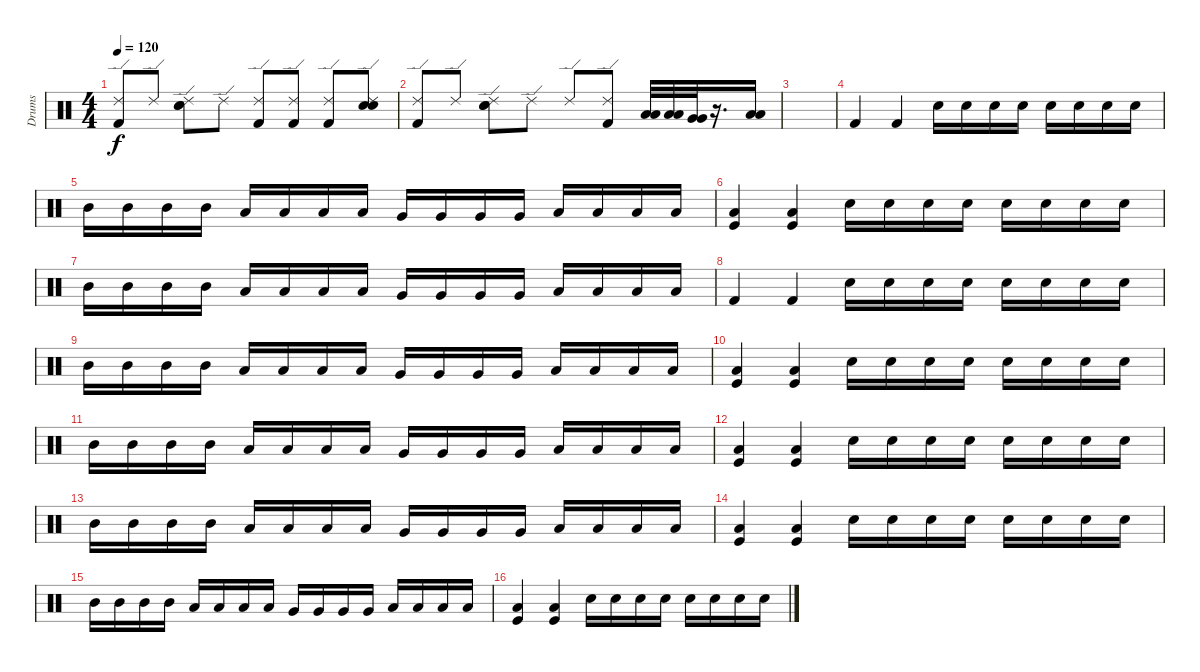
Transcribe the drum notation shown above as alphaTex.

\track ("Drums" "Drums") {instrument percussion}
\staff {score}
\articulation defaults
\ts (4 4)
\tempo 120
\clef neutral
\ks c
("Ride (edge) 2" "Kick (hit) 2").8{dy f} "Ride (edge) 2".8 ("Ride (edge) 2" "Snare (hit) 2" "Snare (hit) 2").8 "Ride (edge) 2".8 ("Ride (edge) 2" "Kick (hit) 2").8 ("Ride (edge) 2" "Kick (hit) 2").8 ("Ride (edge) 2" "Kick (hit) 2").8 ("Ride (edge) 2" "Snare (hit) 2" "Snare (hit) 2").8 |
("Ride (edge) 2" "Kick (hit) 2").8 "Ride (edge) 2".8 ("Ride (edge) 2" "Snare (hit) 2" "Snare (hit) 2").8 "Ride (edge) 2".8 "Ride (edge) 2".8 ("Ride (edge) 2" "Kick (hit) 2").8 ("Low Tom (hit)" "Low Tom (hit)").32 ("Low Tom (hit)" "Low Tom (hit)").32 ("Very Low Tom (hit)" "Very Low Tom (hit)").32 r.16{d} ("Low Floor Tom (hit)" "Low Floor Tom (hit)").16 |
|
"Kick (hit) 2".4 "Kick (hit) 2".4 "Electric Snare (hit)".16 "Electric Snare (hit)".16 "Electric Snare (hit)".16 "Electric Snare (hit)".16 "Electric Snare (hit)".16 "Electric Snare (hit)".16 "Electric Snare (hit)".16 "Electric Snare (hit)".16 |
"Mid Tom (hit)".16 "Mid Tom (hit)".16 "Mid Tom (hit)".16 "Mid Tom (hit)".16 "Low Tom (hit)".16 "Low Tom (hit)".16 "Low Tom (hit)".16 "Low Tom (hit)".16 "Very Low Tom (hit)".16 "Very Low Tom (hit)".16 "Very Low Tom (hit)".16 "Very Low Tom (hit)".16 "Low Floor Tom (hit)".16 "Low Floor Tom (hit)".16 "Low Floor Tom (hit)".16 "Low Floor Tom (hit)".16 |
("Kick (hit)" "Low Floor Tom (hit)").4 ("Kick (hit)" "Low Floor Tom (hit)").4 "Electric Snare (hit)".16 "Electric Snare (hit)".16 "Electric Snare (hit)".16 "Electric Snare (hit)".16 "Electric Snare (hit)".16 "Electric Snare (hit)".16 "Electric Snare (hit)".16 "Electric Snare (hit)".16 |
"Mid Tom (hit)".16 "Mid Tom (hit)".16 "Mid Tom (hit)".16 "Mid Tom (hit)".16 "Low Tom (hit)".16 "Low Tom (hit)".16 "Low Tom (hit)".16 "Low Tom (hit)".16 "Very Low Tom (hit)".16 "Very Low Tom (hit)".16 "Very Low Tom (hit)".16 "Very Low Tom (hit)".16 "Low Floor Tom (hit)".16 "Low Floor Tom (hit)".16 "Low Floor Tom (hit)".16 "Low Floor Tom (hit)".16 |
"Kick (hit) 2".4 "Kick (hit) 2".4 "Electric Snare (hit)".16 "Electric Snare (hit)".16 "Electric Snare (hit)".16 "Electric Snare (hit)".16 "Electric Snare (hit)".16 "Electric Snare (hit)".16 "Electric Snare (hit)".16 "Electric Snare (hit)".16 |
"Mid Tom (hit)".16 "Mid Tom (hit)".16 "Mid Tom (hit)".16 "Mid Tom (hit)".16 "Low Tom (hit)".16 "Low Tom (hit)".16 "Low Tom (hit)".16 "Low Tom (hit)".16 "Very Low Tom (hit)".16 "Very Low Tom (hit)".16 "Very Low Tom (hit)".16 "Very Low Tom (hit)".16 "Low Floor Tom (hit)".16 "Low Floor Tom (hit)".16 "Low Floor Tom (hit)".16 "Low Floor Tom (hit)".16 |
("Kick (hit)" "Low Floor Tom (hit)").4 ("Kick (hit)" "Low Floor Tom (hit)").4 "Electric Snare (hit)".16 "Electric Snare (hit)".16 "Electric Snare (hit)".16 "Electric Snare (hit)".16 "Electric Snare (hit)".16 "Electric Snare (hit)".16 "Electric Snare (hit)".16 "Electric Snare (hit)".16 |
"Mid Tom (hit)".16 "Mid Tom (hit)".16 "Mid Tom (hit)".16 "Mid Tom (hit)".16 "Low Tom (hit)".16 "Low Tom (hit)".16 "Low Tom (hit)".16 "Low Tom (hit)".16 "Very Low Tom (hit)".16 "Very Low Tom (hit)".16 "Very Low Tom (hit)".16 "Very Low Tom (hit)".16 "Low Floor Tom (hit)".16 "Low Floor Tom (hit)".16 "Low Floor Tom (hit)".16 "Low Floor Tom (hit)".16 |
("Kick (hit)" "Low Floor Tom (hit)").4 ("Kick (hit)" "Low Floor Tom (hit)").4 "Electric Snare (hit)".16 "Electric Snare (hit)".16 "Electric Snare (hit)".16 "Electric Snare (hit)".16 "Electric Snare (hit)".16 "Electric Snare (hit)".16 "Electric Snare (hit)".16 "Electric Snare (hit)".16 |
"Mid Tom (hit)".16 "Mid Tom (hit)".16 "Mid Tom (hit)".16 "Mid Tom (hit)".16 "Low Tom (hit)".16 "Low Tom (hit)".16 "Low Tom (hit)".16 "Low Tom (hit)".16 "Very Low Tom (hit)".16 "Very Low Tom (hit)".16 "Very Low Tom (hit)".16 "Very Low Tom (hit)".16 "Low Floor Tom (hit)".16 "Low Floor Tom (hit)".16 "Low Floor Tom (hit)".16 "Low Floor Tom (hit)".16 |
("Kick (hit)" "Low Floor Tom (hit)").4 ("Kick (hit)" "Low Floor Tom (hit)").4 "Electric Snare (hit)".16 "Electric Snare (hit)".16 "Electric Snare (hit)".16 "Electric Snare (hit)".16 "Electric Snare (hit)".16 "Electric Snare (hit)".16 "Electric Snare (hit)".16 "Electric Snare (hit)".16 |
"Mid Tom (hit)".16 "Mid Tom (hit)".16 "Mid Tom (hit)".16 "Mid Tom (hit)".16 "Low Tom (hit)".16 "Low Tom (hit)".16 "Low Tom (hit)".16 "Low Tom (hit)".16 "Very Low Tom (hit)".16 "Very Low Tom (hit)".16 "Very Low Tom (hit)".16 "Very Low Tom (hit)".16 "Low Floor Tom (hit)".16 "Low Floor Tom (hit)".16 "Low Floor Tom (hit)".16 "Low Floor Tom (hit)".16 |
("Kick (hit)" "Low Floor Tom (hit)").4 ("Kick (hit)" "Low Floor Tom (hit)").4 "Electric Snare (hit)".16 "Electric Snare (hit)".16 "Electric Snare (hit)".16 "Electric Snare (hit)".16 "Electric Snare (hit)".16 "Electric Snare (hit)".16 "Electric Snare (hit)".16 "Electric Snare (hit)".16
